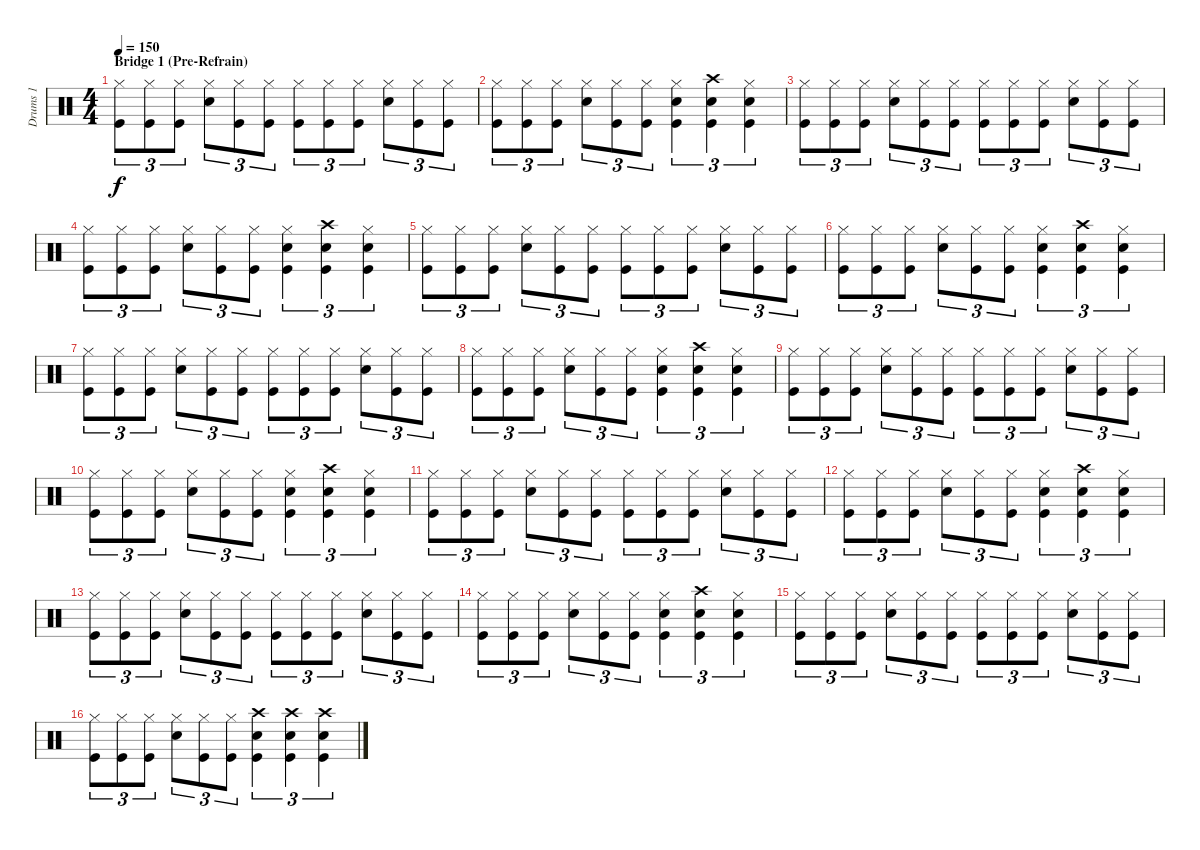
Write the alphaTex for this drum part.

\track ("Drums 1" "Drums 1") {instrument percussion}
\staff {score}
\articulation defaults
\ts (4 4)
\section ("" "Bridge 1 (Pre-Refrain)")
\tempo 150
\clef neutral
\ks c
("Hi-Hat (closed)" "Kick (hit)").8{tu (3 2) dy f} ("Hi-Hat (closed)" "Kick (hit)").8{tu (3 2)} ("Hi-Hat (closed)" "Kick (hit)").8{tu (3 2)} ("Hi-Hat (closed)" "Snare (hit) 2").8{tu (3 2)} ("Hi-Hat (closed)" "Kick (hit)").8{tu (3 2)} ("Hi-Hat (closed)" "Kick (hit)").8{tu (3 2)} ("Hi-Hat (closed)" "Kick (hit)").8{tu (3 2)} ("Hi-Hat (closed)" "Kick (hit)").8{tu (3 2)} ("Hi-Hat (closed)" "Kick (hit)").8{tu (3 2)} ("Hi-Hat (closed)" "Snare (hit) 2").8{tu (3 2)} ("Hi-Hat (closed)" "Kick (hit)").8{tu (3 2)} ("Hi-Hat (closed)" "Kick (hit)").8{tu (3 2)} |
("Hi-Hat (closed)" "Kick (hit)").8{tu (3 2)} ("Hi-Hat (closed)" "Kick (hit)").8{tu (3 2)} ("Hi-Hat (closed)" "Kick (hit)").8{tu (3 2)} ("Hi-Hat (closed)" "Snare (hit) 2").8{tu (3 2)} ("Hi-Hat (closed)" "Kick (hit)").8{tu (3 2)} ("Hi-Hat (closed)" "Kick (hit)").8{tu (3 2)} ("Snare (hit) 2" "Hi-Hat (closed)" "Kick (hit)").4{tu (3 2)} ("Snare (hit) 2" "Crash high (hit)" "Kick (hit)").4{tu (3 2)} ("Snare (hit) 2" "Hi-Hat (closed)" "Kick (hit)").4{tu (3 2)} |
("Hi-Hat (closed)" "Kick (hit)").8{tu (3 2)} ("Hi-Hat (closed)" "Kick (hit)").8{tu (3 2)} ("Hi-Hat (closed)" "Kick (hit)").8{tu (3 2)} ("Hi-Hat (closed)" "Snare (hit) 2").8{tu (3 2)} ("Hi-Hat (closed)" "Kick (hit)").8{tu (3 2)} ("Hi-Hat (closed)" "Kick (hit)").8{tu (3 2)} ("Hi-Hat (closed)" "Kick (hit)").8{tu (3 2)} ("Hi-Hat (closed)" "Kick (hit)").8{tu (3 2)} ("Hi-Hat (closed)" "Kick (hit)").8{tu (3 2)} ("Hi-Hat (closed)" "Snare (hit) 2").8{tu (3 2)} ("Hi-Hat (closed)" "Kick (hit)").8{tu (3 2)} ("Hi-Hat (closed)" "Kick (hit)").8{tu (3 2)} |
("Hi-Hat (closed)" "Kick (hit)").8{tu (3 2)} ("Hi-Hat (closed)" "Kick (hit)").8{tu (3 2)} ("Hi-Hat (closed)" "Kick (hit)").8{tu (3 2)} ("Hi-Hat (closed)" "Snare (hit) 2").8{tu (3 2)} ("Hi-Hat (closed)" "Kick (hit)").8{tu (3 2)} ("Hi-Hat (closed)" "Kick (hit)").8{tu (3 2)} ("Snare (hit) 2" "Hi-Hat (closed)" "Kick (hit)").4{tu (3 2)} ("Snare (hit) 2" "Crash high (hit)" "Kick (hit)").4{tu (3 2)} ("Snare (hit) 2" "Hi-Hat (closed)" "Kick (hit)").4{tu (3 2)} |
("Hi-Hat (closed)" "Kick (hit)").8{tu (3 2)} ("Hi-Hat (closed)" "Kick (hit)").8{tu (3 2)} ("Hi-Hat (closed)" "Kick (hit)").8{tu (3 2)} ("Hi-Hat (closed)" "Snare (hit) 2").8{tu (3 2)} ("Hi-Hat (closed)" "Kick (hit)").8{tu (3 2)} ("Hi-Hat (closed)" "Kick (hit)").8{tu (3 2)} ("Hi-Hat (closed)" "Kick (hit)").8{tu (3 2)} ("Hi-Hat (closed)" "Kick (hit)").8{tu (3 2)} ("Hi-Hat (closed)" "Kick (hit)").8{tu (3 2)} ("Hi-Hat (closed)" "Snare (hit) 2").8{tu (3 2)} ("Hi-Hat (closed)" "Kick (hit)").8{tu (3 2)} ("Hi-Hat (closed)" "Kick (hit)").8{tu (3 2)} |
("Hi-Hat (closed)" "Kick (hit)").8{tu (3 2)} ("Hi-Hat (closed)" "Kick (hit)").8{tu (3 2)} ("Hi-Hat (closed)" "Kick (hit)").8{tu (3 2)} ("Hi-Hat (closed)" "Snare (hit) 2").8{tu (3 2)} ("Hi-Hat (closed)" "Kick (hit)").8{tu (3 2)} ("Hi-Hat (closed)" "Kick (hit)").8{tu (3 2)} ("Snare (hit) 2" "Hi-Hat (closed)" "Kick (hit)").4{tu (3 2)} ("Snare (hit) 2" "Crash high (hit)" "Kick (hit)").4{tu (3 2)} ("Snare (hit) 2" "Hi-Hat (closed)" "Kick (hit)").4{tu (3 2)} |
("Hi-Hat (closed)" "Kick (hit)").8{tu (3 2)} ("Hi-Hat (closed)" "Kick (hit)").8{tu (3 2)} ("Hi-Hat (closed)" "Kick (hit)").8{tu (3 2)} ("Hi-Hat (closed)" "Snare (hit) 2").8{tu (3 2)} ("Hi-Hat (closed)" "Kick (hit)").8{tu (3 2)} ("Hi-Hat (closed)" "Kick (hit)").8{tu (3 2)} ("Hi-Hat (closed)" "Kick (hit)").8{tu (3 2)} ("Hi-Hat (closed)" "Kick (hit)").8{tu (3 2)} ("Hi-Hat (closed)" "Kick (hit)").8{tu (3 2)} ("Hi-Hat (closed)" "Snare (hit) 2").8{tu (3 2)} ("Hi-Hat (closed)" "Kick (hit)").8{tu (3 2)} ("Hi-Hat (closed)" "Kick (hit)").8{tu (3 2)} |
("Hi-Hat (closed)" "Kick (hit)").8{tu (3 2)} ("Hi-Hat (closed)" "Kick (hit)").8{tu (3 2)} ("Hi-Hat (closed)" "Kick (hit)").8{tu (3 2)} ("Hi-Hat (closed)" "Snare (hit) 2").8{tu (3 2)} ("Hi-Hat (closed)" "Kick (hit)").8{tu (3 2)} ("Hi-Hat (closed)" "Kick (hit)").8{tu (3 2)} ("Snare (hit) 2" "Hi-Hat (closed)" "Kick (hit)").4{tu (3 2)} ("Snare (hit) 2" "Crash high (hit)" "Kick (hit)").4{tu (3 2)} ("Snare (hit) 2" "Hi-Hat (closed)" "Kick (hit)").4{tu (3 2)} |
("Hi-Hat (closed)" "Kick (hit)").8{tu (3 2)} ("Hi-Hat (closed)" "Kick (hit)").8{tu (3 2)} ("Hi-Hat (closed)" "Kick (hit)").8{tu (3 2)} ("Hi-Hat (closed)" "Snare (hit) 2").8{tu (3 2)} ("Hi-Hat (closed)" "Kick (hit)").8{tu (3 2)} ("Hi-Hat (closed)" "Kick (hit)").8{tu (3 2)} ("Hi-Hat (closed)" "Kick (hit)").8{tu (3 2)} ("Hi-Hat (closed)" "Kick (hit)").8{tu (3 2)} ("Hi-Hat (closed)" "Kick (hit)").8{tu (3 2)} ("Hi-Hat (closed)" "Snare (hit) 2").8{tu (3 2)} ("Hi-Hat (closed)" "Kick (hit)").8{tu (3 2)} ("Hi-Hat (closed)" "Kick (hit)").8{tu (3 2)} |
("Hi-Hat (closed)" "Kick (hit)").8{tu (3 2)} ("Hi-Hat (closed)" "Kick (hit)").8{tu (3 2)} ("Hi-Hat (closed)" "Kick (hit)").8{tu (3 2)} ("Hi-Hat (closed)" "Snare (hit) 2").8{tu (3 2)} ("Hi-Hat (closed)" "Kick (hit)").8{tu (3 2)} ("Hi-Hat (closed)" "Kick (hit)").8{tu (3 2)} ("Snare (hit) 2" "Hi-Hat (closed)" "Kick (hit)").4{tu (3 2)} ("Snare (hit) 2" "Crash high (hit)" "Kick (hit)").4{tu (3 2)} ("Snare (hit) 2" "Hi-Hat (closed)" "Kick (hit)").4{tu (3 2)} |
("Hi-Hat (closed)" "Kick (hit)").8{tu (3 2)} ("Hi-Hat (closed)" "Kick (hit)").8{tu (3 2)} ("Hi-Hat (closed)" "Kick (hit)").8{tu (3 2)} ("Hi-Hat (closed)" "Snare (hit) 2").8{tu (3 2)} ("Hi-Hat (closed)" "Kick (hit)").8{tu (3 2)} ("Hi-Hat (closed)" "Kick (hit)").8{tu (3 2)} ("Hi-Hat (closed)" "Kick (hit)").8{tu (3 2)} ("Hi-Hat (closed)" "Kick (hit)").8{tu (3 2)} ("Hi-Hat (closed)" "Kick (hit)").8{tu (3 2)} ("Hi-Hat (closed)" "Snare (hit) 2").8{tu (3 2)} ("Hi-Hat (closed)" "Kick (hit)").8{tu (3 2)} ("Hi-Hat (closed)" "Kick (hit)").8{tu (3 2)} |
("Hi-Hat (closed)" "Kick (hit)").8{tu (3 2)} ("Hi-Hat (closed)" "Kick (hit)").8{tu (3 2)} ("Hi-Hat (closed)" "Kick (hit)").8{tu (3 2)} ("Hi-Hat (closed)" "Snare (hit) 2").8{tu (3 2)} ("Hi-Hat (closed)" "Kick (hit)").8{tu (3 2)} ("Hi-Hat (closed)" "Kick (hit)").8{tu (3 2)} ("Snare (hit) 2" "Hi-Hat (closed)" "Kick (hit)").4{tu (3 2)} ("Snare (hit) 2" "Crash high (hit)" "Kick (hit)").4{tu (3 2)} ("Snare (hit) 2" "Hi-Hat (closed)" "Kick (hit)").4{tu (3 2)} |
("Hi-Hat (closed)" "Kick (hit)").8{tu (3 2)} ("Hi-Hat (closed)" "Kick (hit)").8{tu (3 2)} ("Hi-Hat (closed)" "Kick (hit)").8{tu (3 2)} ("Hi-Hat (closed)" "Snare (hit) 2").8{tu (3 2)} ("Hi-Hat (closed)" "Kick (hit)").8{tu (3 2)} ("Hi-Hat (closed)" "Kick (hit)").8{tu (3 2)} ("Hi-Hat (closed)" "Kick (hit)").8{tu (3 2)} ("Hi-Hat (closed)" "Kick (hit)").8{tu (3 2)} ("Hi-Hat (closed)" "Kick (hit)").8{tu (3 2)} ("Hi-Hat (closed)" "Snare (hit) 2").8{tu (3 2)} ("Hi-Hat (closed)" "Kick (hit)").8{tu (3 2)} ("Hi-Hat (closed)" "Kick (hit)").8{tu (3 2)} |
("Hi-Hat (closed)" "Kick (hit)").8{tu (3 2)} ("Hi-Hat (closed)" "Kick (hit)").8{tu (3 2)} ("Hi-Hat (closed)" "Kick (hit)").8{tu (3 2)} ("Hi-Hat (closed)" "Snare (hit) 2").8{tu (3 2)} ("Hi-Hat (closed)" "Kick (hit)").8{tu (3 2)} ("Hi-Hat (closed)" "Kick (hit)").8{tu (3 2)} ("Snare (hit) 2" "Hi-Hat (closed)" "Kick (hit)").4{tu (3 2)} ("Snare (hit) 2" "Crash high (hit)" "Kick (hit)").4{tu (3 2)} ("Snare (hit) 2" "Hi-Hat (closed)" "Kick (hit)").4{tu (3 2)} |
("Hi-Hat (closed)" "Kick (hit)").8{tu (3 2)} ("Hi-Hat (closed)" "Kick (hit)").8{tu (3 2)} ("Hi-Hat (closed)" "Kick (hit)").8{tu (3 2)} ("Hi-Hat (closed)" "Snare (hit) 2").8{tu (3 2)} ("Hi-Hat (closed)" "Kick (hit)").8{tu (3 2)} ("Hi-Hat (closed)" "Kick (hit)").8{tu (3 2)} ("Hi-Hat (closed)" "Kick (hit)").8{tu (3 2)} ("Hi-Hat (closed)" "Kick (hit)").8{tu (3 2)} ("Hi-Hat (closed)" "Kick (hit)").8{tu (3 2)} ("Hi-Hat (closed)" "Snare (hit) 2").8{tu (3 2)} ("Hi-Hat (closed)" "Kick (hit)").8{tu (3 2)} ("Hi-Hat (closed)" "Kick (hit)").8{tu (3 2)} |
("Hi-Hat (closed)" "Kick (hit)").8{tu (3 2)} ("Hi-Hat (closed)" "Kick (hit)").8{tu (3 2)} ("Hi-Hat (closed)" "Kick (hit)").8{tu (3 2)} ("Hi-Hat (closed)" "Snare (hit) 2").8{tu (3 2)} ("Hi-Hat (closed)" "Kick (hit)").8{tu (3 2)} ("Hi-Hat (closed)" "Kick (hit)").8{tu (3 2)} ("Snare (hit) 2" "Crash high (hit)" "Kick (hit)").4{tu (3 2)} ("Snare (hit) 2" "Crash high (hit)" "Kick (hit)").4{tu (3 2)} ("Snare (hit) 2" "Crash high (hit)" "Kick (hit)").4{tu (3 2)}
